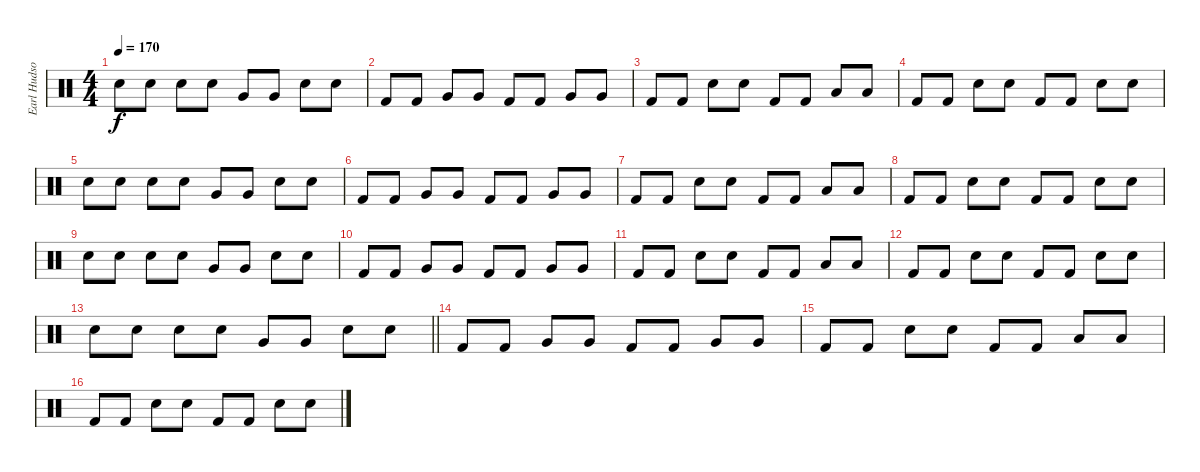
\track ("Earl Hudson" "Earl Hudso") {instrument percussion}
\staff {score}
\articulation defaults
\ts (4 4)
\tempo 170
\clef neutral
\ks c "Snare (hit) 2".8{dy f} "Snare (hit) 2".8 "Electric Snare (hit)".8 "Electric Snare (hit)".8 "Very Low Tom (hit)".8 "Very Low Tom (hit)".8 "Electric Snare (hit)".8 "Electric Snare (hit)".8
|
"Kick (hit) 2".8 "Kick (hit) 2".8 "Very Low Tom (hit)".8 "Very Low Tom (hit)".8 "Kick (hit) 2".8 "Kick (hit) 2".8 "Very Low Tom (hit)".8 "Very Low Tom (hit)".8 |
"Kick (hit) 2".8 "Kick (hit) 2".8 "Electric Snare (hit)".8 "Electric Snare (hit)".8 "Kick (hit) 2".8 "Kick (hit) 2".8 "Low Tom (hit)".8 "Low Tom (hit)".8 |
"Kick (hit) 2".8 "Kick (hit) 2".8 "Snare (hit) 2".8 "Snare (hit) 2".8 "Kick (hit) 2".8 "Kick (hit) 2".8 "Snare (hit) 2".8 "Snare (hit) 2".8 |
"Snare (hit) 2".8 "Snare (hit) 2".8 "Electric Snare (hit)".8 "Electric Snare (hit)".8 "Very Low Tom (hit)".8 "Very Low Tom (hit)".8 "Electric Snare (hit)".8 "Electric Snare (hit)".8 |
"Kick (hit) 2".8 "Kick (hit) 2".8 "Very Low Tom (hit)".8 "Very Low Tom (hit)".8 "Kick (hit) 2".8 "Kick (hit) 2".8 "Very Low Tom (hit)".8 "Very Low Tom (hit)".8 |
"Kick (hit) 2".8 "Kick (hit) 2".8 "Electric Snare (hit)".8 "Electric Snare (hit)".8 "Kick (hit) 2".8 "Kick (hit) 2".8 "Low Tom (hit)".8 "Low Tom (hit)".8 |
"Kick (hit) 2".8 "Kick (hit) 2".8 "Snare (hit) 2".8 "Snare (hit) 2".8 "Kick (hit) 2".8 "Kick (hit) 2".8 "Snare (hit) 2".8 "Snare (hit) 2".8 |
"Snare (hit) 2".8 "Snare (hit) 2".8 "Electric Snare (hit)".8 "Electric Snare (hit)".8 "Very Low Tom (hit)".8 "Very Low Tom (hit)".8 "Electric Snare (hit)".8 "Electric Snare (hit)".8 |
"Kick (hit) 2".8 "Kick (hit) 2".8 "Very Low Tom (hit)".8 "Very Low Tom (hit)".8 "Kick (hit) 2".8 "Kick (hit) 2".8 "Very Low Tom (hit)".8 "Very Low Tom (hit)".8 |
"Kick (hit) 2".8 "Kick (hit) 2".8 "Electric Snare (hit)".8 "Electric Snare (hit)".8 "Kick (hit) 2".8 "Kick (hit) 2".8 "Low Tom (hit)".8 "Low Tom (hit)".8 |
"Kick (hit) 2".8 "Kick (hit) 2".8 "Snare (hit) 2".8 "Snare (hit) 2".8 "Kick (hit) 2".8 "Kick (hit) 2".8 "Snare (hit) 2".8 "Snare (hit) 2".8 |
\barLineRight lightlight "Snare (hit) 2".8 "Snare (hit) 2".8 "Electric Snare (hit)".8 "Electric Snare (hit)".8 "Very Low Tom (hit)".8 "Very Low Tom (hit)".8 "Electric Snare (hit)".8 "Electric Snare (hit)".8
|
"Kick (hit) 2".8 "Kick (hit) 2".8 "Very Low Tom (hit)".8 "Very Low Tom (hit)".8 "Kick (hit) 2".8 "Kick (hit) 2".8 "Very Low Tom (hit)".8 "Very Low Tom (hit)".8 |
"Kick (hit) 2".8 "Kick (hit) 2".8 "Electric Snare (hit)".8 "Electric Snare (hit)".8 "Kick (hit) 2".8 "Kick (hit) 2".8 "Low Tom (hit)".8 "Low Tom (hit)".8 |
"Kick (hit) 2".8 "Kick (hit) 2".8 "Snare (hit) 2".8 "Snare (hit) 2".8 "Kick (hit) 2".8 "Kick (hit) 2".8 "Snare (hit) 2".8 "Snare (hit) 2".8
